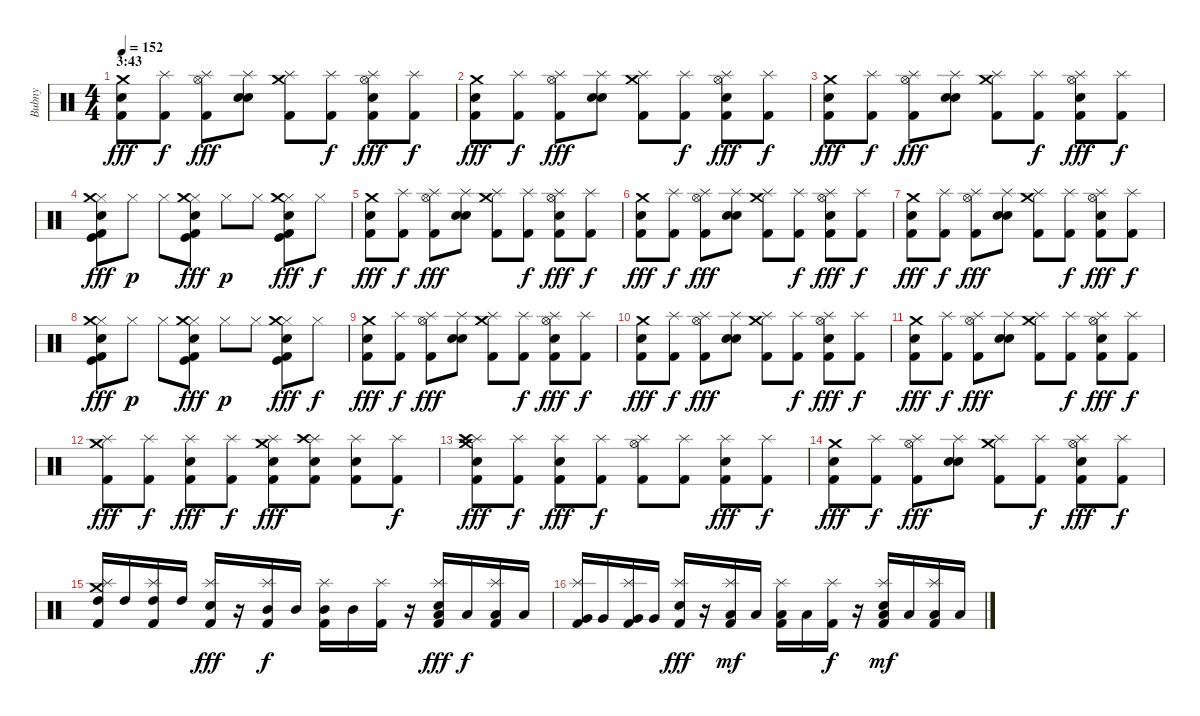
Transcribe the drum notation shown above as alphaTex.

\track ("Bubny" "Bubny") {instrument percussion}
\staff {score}
\articulation defaults
\ts (4 4)
\section ("" "3:43")
\tempo 152
\clef neutral
\ks c
("Kick (hit) 2" "Electric Snare (hit)" "Crash medium (hit)").8{dy fff} ("Splash (hit)" "Kick (hit) 2").8{dy f} ("Splash (hit)" "Kick (hit) 2" "Hi-Hat (open)").8{dy fff} ("Splash (hit)" "Electric Snare (hit)" "Snare (hit) 2").8 ("Splash (hit)" "Kick (hit) 2" "Crash medium (hit)").8 ("Splash (hit)" "Kick (hit) 2").8{dy f} ("Splash (hit)" "Kick (hit) 2" "Snare (hit) 2" "Hi-Hat (open)").8{dy fff} ("Splash (hit)" "Kick (hit) 2").8{dy f} |
("Kick (hit) 2" "Electric Snare (hit)" "Crash medium (hit)").8{dy fff} ("Splash (hit)" "Kick (hit) 2").8{dy f} ("Splash (hit)" "Kick (hit) 2" "Hi-Hat (open)").8{dy fff} ("Splash (hit)" "Electric Snare (hit)" "Snare (hit) 2").8 ("Splash (hit)" "Kick (hit) 2" "Crash medium (hit)").8 ("Splash (hit)" "Kick (hit) 2").8{dy f} ("Splash (hit)" "Kick (hit) 2" "Snare (hit) 2" "Hi-Hat (open)").8{dy fff} ("Splash (hit)" "Kick (hit) 2").8{dy f} |
("Kick (hit) 2" "Electric Snare (hit)" "Crash medium (hit)").8{dy fff} ("Splash (hit)" "Kick (hit) 2").8{dy f} ("Splash (hit)" "Kick (hit) 2" "Hi-Hat (open)").8{dy fff} ("Splash (hit)" "Electric Snare (hit)" "Snare (hit) 2").8 ("Splash (hit)" "Kick (hit) 2" "Crash medium (hit)").8 ("Splash (hit)" "Kick (hit) 2").8{dy f} ("Splash (hit)" "Kick (hit) 2" "Snare (hit) 2" "Hi-Hat (open)").8{dy fff} ("Splash (hit)" "Kick (hit) 2").8{dy f} |
("Hi-Hat (closed)" "Crash medium (hit)" "Kick (hit) 2" "Kick (hit)" "Snare (hit) 2").8{dy fff} "Hi-Hat (closed)".8{dy p} "Hi-Hat (closed)".8 ("Hi-Hat (closed)" "Crash medium (hit)" "Kick (hit) 2" "Kick (hit)" "Snare (hit) 2").8{dy fff} "Hi-Hat (closed)".8{dy p} "Hi-Hat (closed)".8 ("Hi-Hat (closed)" "Crash medium (hit)" "Kick (hit) 2" "Kick (hit)" "Snare (hit) 2").8{dy fff} "Hi-Hat (closed)".8{dy f} |
("Kick (hit) 2" "Electric Snare (hit)" "Crash medium (hit)").8{dy fff} ("Splash (hit)" "Kick (hit) 2").8{dy f} ("Splash (hit)" "Kick (hit) 2" "Hi-Hat (open)").8{dy fff} ("Splash (hit)" "Electric Snare (hit)" "Snare (hit) 2").8 ("Splash (hit)" "Kick (hit) 2" "Crash medium (hit)").8 ("Splash (hit)" "Kick (hit) 2").8{dy f} ("Splash (hit)" "Kick (hit) 2" "Snare (hit) 2" "Hi-Hat (open)").8{dy fff} ("Splash (hit)" "Kick (hit) 2").8{dy f} |
("Kick (hit) 2" "Electric Snare (hit)" "Crash medium (hit)").8{dy fff} ("Splash (hit)" "Kick (hit) 2").8{dy f} ("Splash (hit)" "Kick (hit) 2" "Hi-Hat (open)").8{dy fff} ("Splash (hit)" "Electric Snare (hit)" "Snare (hit) 2").8 ("Splash (hit)" "Kick (hit) 2" "Crash medium (hit)").8 ("Splash (hit)" "Kick (hit) 2").8{dy f} ("Splash (hit)" "Kick (hit) 2" "Snare (hit) 2" "Hi-Hat (open)").8{dy fff} ("Splash (hit)" "Kick (hit) 2").8{dy f} |
("Kick (hit) 2" "Electric Snare (hit)" "Crash medium (hit)").8{dy fff} ("Splash (hit)" "Kick (hit) 2").8{dy f} ("Splash (hit)" "Kick (hit) 2" "Hi-Hat (open)").8{dy fff} ("Splash (hit)" "Electric Snare (hit)" "Snare (hit) 2").8 ("Splash (hit)" "Kick (hit) 2" "Crash medium (hit)").8 ("Splash (hit)" "Kick (hit) 2").8{dy f} ("Splash (hit)" "Kick (hit) 2" "Snare (hit) 2" "Hi-Hat (open)").8{dy fff} ("Splash (hit)" "Kick (hit) 2").8{dy f} |
("Hi-Hat (closed)" "Crash medium (hit)" "Kick (hit) 2" "Kick (hit)" "Snare (hit) 2").8{dy fff} "Hi-Hat (closed)".8{dy p} "Hi-Hat (closed)".8 ("Hi-Hat (closed)" "Crash medium (hit)" "Kick (hit) 2" "Kick (hit)" "Snare (hit) 2").8{dy fff} "Hi-Hat (closed)".8{dy p} "Hi-Hat (closed)".8 ("Hi-Hat (closed)" "Crash medium (hit)" "Kick (hit) 2" "Kick (hit)" "Snare (hit) 2").8{dy fff} "Hi-Hat (closed)".8{dy f} |
("Kick (hit) 2" "Electric Snare (hit)" "Crash medium (hit)").8{dy fff} ("Splash (hit)" "Kick (hit) 2").8{dy f} ("Splash (hit)" "Kick (hit) 2" "Hi-Hat (open)").8{dy fff} ("Splash (hit)" "Electric Snare (hit)" "Snare (hit) 2").8 ("Splash (hit)" "Kick (hit) 2" "Crash medium (hit)").8 ("Splash (hit)" "Kick (hit) 2").8{dy f} ("Splash (hit)" "Kick (hit) 2" "Snare (hit) 2" "Hi-Hat (open)").8{dy fff} ("Splash (hit)" "Kick (hit) 2").8{dy f} |
("Kick (hit) 2" "Electric Snare (hit)" "Crash medium (hit)").8{dy fff} ("Splash (hit)" "Kick (hit) 2").8{dy f} ("Splash (hit)" "Kick (hit) 2" "Hi-Hat (open)").8{dy fff} ("Splash (hit)" "Electric Snare (hit)" "Snare (hit) 2").8 ("Splash (hit)" "Kick (hit) 2" "Crash medium (hit)").8 ("Splash (hit)" "Kick (hit) 2").8{dy f} ("Splash (hit)" "Kick (hit) 2" "Snare (hit) 2" "Hi-Hat (open)").8{dy fff} ("Splash (hit)" "Kick (hit) 2").8{dy f} |
("Kick (hit) 2" "Electric Snare (hit)" "Crash medium (hit)").8{dy fff} ("Splash (hit)" "Kick (hit) 2").8{dy f} ("Splash (hit)" "Kick (hit) 2" "Hi-Hat (open)").8{dy fff} ("Splash (hit)" "Electric Snare (hit)" "Snare (hit) 2").8 ("Splash (hit)" "Kick (hit) 2" "Crash medium (hit)").8 ("Splash (hit)" "Kick (hit) 2").8{dy f} ("Splash (hit)" "Kick (hit) 2" "Snare (hit) 2" "Hi-Hat (open)").8{dy fff} ("Splash (hit)" "Kick (hit) 2").8{dy f} |
("Splash (hit)" "Kick (hit) 2" "Crash medium (hit)").8{dy fff} ("Splash (hit)" "Kick (hit) 2").8{dy f} ("Splash (hit)" "Kick (hit) 2" "Snare (hit) 2").8{dy fff} ("Splash (hit)" "Kick (hit) 2").8{dy f} ("Splash (hit)" "Kick (hit) 2" "Crash medium (hit)" "Snare (hit) 2").8{dy fff} ("Splash (hit)" "Kick (hit) 2" "Crash high (hit)" "Snare (hit) 2").8 ("Splash (hit)" "Kick (hit) 2" "Snare (hit) 2").8 ("Splash (hit)" "Kick (hit) 2").8{dy f} |
("Splash (hit)" "Kick (hit) 2" "Crash high (hit)" "Snare (hit) 2" "Crash medium (hit)").8{dy fff} ("Splash (hit)" "Kick (hit) 2").8{dy f} ("Splash (hit)" "Kick (hit) 2" "Snare (hit) 2").8{dy fff} ("Splash (hit)" "Kick (hit) 2").8{dy f} ("Splash (hit)" "Kick (hit) 2" "Hi-Hat (open)").8 ("Splash (hit)" "Kick (hit) 2").8 ("Splash (hit)" "Kick (hit) 2" "Snare (hit) 2").8{dy fff} ("Splash (hit)" "Kick (hit) 2").8{dy f} |
("Kick (hit) 2" "Electric Snare (hit)" "Crash medium (hit)").8{dy fff} ("Splash (hit)" "Kick (hit) 2").8{dy f} ("Splash (hit)" "Kick (hit) 2" "Hi-Hat (open)").8{dy fff} ("Splash (hit)" "Electric Snare (hit)" "Snare (hit) 2").8 ("Splash (hit)" "Kick (hit) 2" "Crash medium (hit)").8 ("Splash (hit)" "Kick (hit) 2").8{dy f} ("Splash (hit)" "Kick (hit) 2" "Snare (hit) 2" "Hi-Hat (open)").8{dy fff} ("Splash (hit)" "Kick (hit) 2").8{dy f} |
("Splash (hit)" "Kick (hit) 2" "High Tom (hit)" "Crash medium (hit)").16 "High Tom (hit)".16 ("Splash (hit)" "Kick (hit) 2" "High Tom (hit)").16 "High Tom (hit)".16 ("Splash (hit)" "Kick (hit) 2" "Snare (hit) 2").16{dy fff} r.16 ("Splash (hit)" "Kick (hit) 2" "Mid Tom (hit)").16{dy f} "Mid Tom (hit)".16 ("Splash (hit)" "Kick (hit) 2" "Mid Tom (hit)").16 "Mid Tom (hit)".16 ("Splash (hit)" "Kick (hit) 2").16 r.16 ("Splash (hit)" "Kick (hit) 2" "Snare (hit) 2" "Low Tom (hit)").16{dy fff} "Low Tom (hit)".16{dy f} ("Splash (hit)" "Kick (hit) 2" "Low Tom (hit)").16 "Low Tom (hit)".16 |
("Splash (hit)" "Kick (hit) 2" "Very Low Tom (hit)").16 "Very Low Tom (hit)".16 ("Splash (hit)" "Kick (hit) 2" "Very Low Tom (hit)").16 "Very Low Tom (hit)".16 ("Splash (hit)" "Kick (hit) 2" "Snare (hit) 2").16{dy fff} r.16 ("Splash (hit)" "Kick (hit) 2" "Low Floor Tom (hit)").16{dy mf} "Low Floor Tom (hit)".16 ("Splash (hit)" "Kick (hit) 2" "Low Floor Tom (hit)").16 "Low Floor Tom (hit)".16 ("Splash (hit)" "Kick (hit) 2").16{dy f} r.16 ("Splash (hit)" "Kick (hit) 2" "Snare (hit) 2" "Low Floor Tom (hit)").16{dy mf} "Low Floor Tom (hit)".16 ("Splash (hit)" "Kick (hit) 2" "Low Floor Tom (hit)").16 "Low Floor Tom (hit)".16
